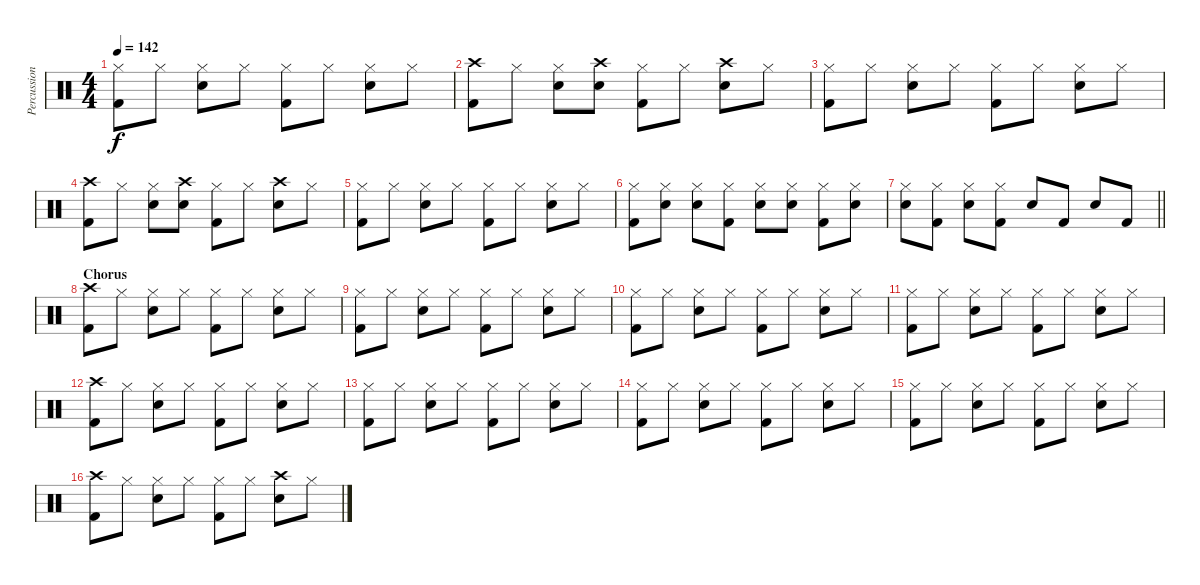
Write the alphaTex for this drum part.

\track ("Percussion" "Percussion") {instrument percussion}
\staff {score}
\articulation defaults
\ts (4 4)
\tempo 142
\clef neutral
\ks c
("Hi-Hat (closed)" "Kick (hit) 2").8{dy f} "Hi-Hat (closed)".8 ("Hi-Hat (closed)" "Electric Snare (hit)").8 "Hi-Hat (closed)".8 ("Hi-Hat (closed)" "Kick (hit) 2").8 "Hi-Hat (closed)".8 ("Hi-Hat (closed)" "Electric Snare (hit)").8 "Hi-Hat (closed)".8 |
("Crash high (hit)" "Kick (hit) 2").8 "Hi-Hat (closed)".8 ("Hi-Hat (closed)" "Electric Snare (hit)").8 ("Crash high (hit)" "Electric Snare (hit)").8 ("Hi-Hat (closed)" "Kick (hit) 2").8 "Hi-Hat (closed)".8 ("Crash high (hit)" "Electric Snare (hit)").8 "Hi-Hat (closed)".8 |
("Hi-Hat (closed)" "Kick (hit) 2").8 "Hi-Hat (closed)".8 ("Hi-Hat (closed)" "Electric Snare (hit)").8 "Hi-Hat (closed)".8 ("Hi-Hat (closed)" "Kick (hit) 2").8 "Hi-Hat (closed)".8 ("Hi-Hat (closed)" "Electric Snare (hit)").8 "Hi-Hat (closed)".8 |
("Crash high (hit)" "Kick (hit) 2").8 "Hi-Hat (closed)".8 ("Hi-Hat (closed)" "Electric Snare (hit)").8 ("Crash high (hit)" "Electric Snare (hit)").8 ("Hi-Hat (closed)" "Kick (hit) 2").8 "Hi-Hat (closed)".8 ("Crash high (hit)" "Electric Snare (hit)").8 "Hi-Hat (closed)".8 |
("Hi-Hat (closed)" "Kick (hit) 2").8 "Hi-Hat (closed)".8 ("Hi-Hat (closed)" "Electric Snare (hit)").8 "Hi-Hat (closed)".8 ("Hi-Hat (closed)" "Kick (hit) 2").8 "Hi-Hat (closed)".8 ("Hi-Hat (closed)" "Electric Snare (hit)").8 "Hi-Hat (closed)".8 |
("Hi-Hat (closed)" "Kick (hit) 2").8 ("Hi-Hat (closed)" "Electric Snare (hit)").8 ("Hi-Hat (closed)" "Electric Snare (hit)").8 ("Hi-Hat (closed)" "Kick (hit) 2").8 ("Hi-Hat (closed)" "Electric Snare (hit)").8 ("Hi-Hat (closed)" "Electric Snare (hit)").8 ("Hi-Hat (closed)" "Kick (hit) 2").8 ("Hi-Hat (closed)" "Electric Snare (hit)").8 |
\barLineRight lightlight
("Hi-Hat (closed)" "Electric Snare (hit)").8 ("Hi-Hat (closed)" "Kick (hit) 2").8 ("Hi-Hat (closed)" "Electric Snare (hit)").8 ("Hi-Hat (closed)" "Kick (hit) 2").8 "Electric Snare (hit)".8 "Kick (hit) 2".8 "Electric Snare (hit)".8 "Kick (hit) 2".8 |
\section ("" "Chorus")
("Crash high (hit)" "Kick (hit) 2").8 "Hi-Hat (closed)".8 ("Hi-Hat (closed)" "Electric Snare (hit)").8 "Hi-Hat (closed)".8 ("Hi-Hat (closed)" "Kick (hit) 2").8 "Hi-Hat (closed)".8 ("Hi-Hat (closed)" "Electric Snare (hit)").8 "Hi-Hat (closed)".8 |
("Hi-Hat (closed)" "Kick (hit) 2").8 "Hi-Hat (closed)".8 ("Hi-Hat (closed)" "Electric Snare (hit)").8 "Hi-Hat (closed)".8 ("Hi-Hat (closed)" "Kick (hit) 2").8 "Hi-Hat (closed)".8 ("Hi-Hat (closed)" "Electric Snare (hit)").8 "Hi-Hat (closed)".8 |
("Hi-Hat (closed)" "Kick (hit) 2").8 "Hi-Hat (closed)".8 ("Hi-Hat (closed)" "Electric Snare (hit)").8 "Hi-Hat (closed)".8 ("Hi-Hat (closed)" "Kick (hit) 2").8 "Hi-Hat (closed)".8 ("Hi-Hat (closed)" "Electric Snare (hit)").8 "Hi-Hat (closed)".8 |
("Hi-Hat (closed)" "Kick (hit) 2").8 "Hi-Hat (closed)".8 ("Hi-Hat (closed)" "Electric Snare (hit)").8 "Hi-Hat (closed)".8 ("Hi-Hat (closed)" "Kick (hit) 2").8 "Hi-Hat (closed)".8 ("Hi-Hat (closed)" "Electric Snare (hit)").8 "Hi-Hat (closed)".8 |
("Crash high (hit)" "Kick (hit) 2").8 "Hi-Hat (closed)".8 ("Hi-Hat (closed)" "Electric Snare (hit)").8 "Hi-Hat (closed)".8 ("Hi-Hat (closed)" "Kick (hit) 2").8 "Hi-Hat (closed)".8 ("Hi-Hat (closed)" "Electric Snare (hit)").8 "Hi-Hat (closed)".8 |
("Hi-Hat (closed)" "Kick (hit) 2").8 "Hi-Hat (closed)".8 ("Hi-Hat (closed)" "Electric Snare (hit)").8 "Hi-Hat (closed)".8 ("Hi-Hat (closed)" "Kick (hit) 2").8 "Hi-Hat (closed)".8 ("Hi-Hat (closed)" "Electric Snare (hit)").8 "Hi-Hat (closed)".8 |
("Hi-Hat (closed)" "Kick (hit) 2").8 "Hi-Hat (closed)".8 ("Hi-Hat (closed)" "Electric Snare (hit)").8 "Hi-Hat (closed)".8 ("Hi-Hat (closed)" "Kick (hit) 2").8 "Hi-Hat (closed)".8 ("Hi-Hat (closed)" "Electric Snare (hit)").8 "Hi-Hat (closed)".8 |
("Hi-Hat (closed)" "Kick (hit) 2").8 "Hi-Hat (closed)".8 ("Hi-Hat (closed)" "Electric Snare (hit)").8 "Hi-Hat (closed)".8 ("Hi-Hat (closed)" "Kick (hit) 2").8 "Hi-Hat (closed)".8 ("Hi-Hat (closed)" "Electric Snare (hit)").8 "Hi-Hat (closed)".8 |
("Crash high (hit)" "Kick (hit) 2").8 "Hi-Hat (closed)".8 ("Hi-Hat (closed)" "Electric Snare (hit)").8 "Hi-Hat (closed)".8 ("Hi-Hat (closed)" "Kick (hit) 2").8 "Hi-Hat (closed)".8 ("Crash high (hit)" "Electric Snare (hit)").8 "Hi-Hat (closed)".8
